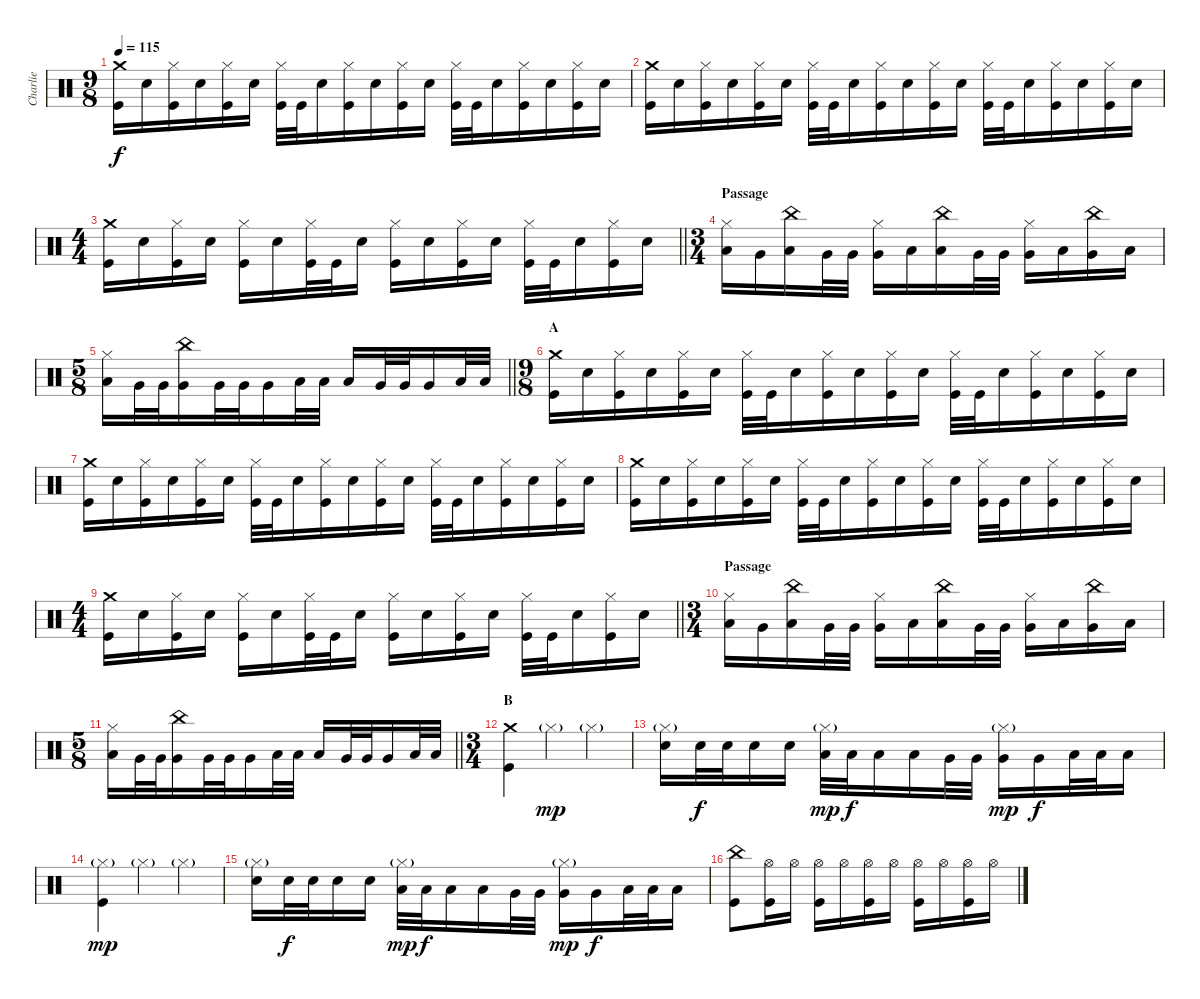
\track ("Charlie" "Charlie") {instrument percussion}
\staff {score}
\articulation defaults
\ts (9 8)
\tempo 115
\clef neutral
\ks c
("Kick (hit)" "Crash medium (hit)").16{dy f} "Snare (hit) 2".16 ("Kick (hit)" "Hi-Hat (closed)").16 "Snare (hit) 2".16 ("Kick (hit)" "Hi-Hat (closed)").16 "Snare (hit) 2".16 ("Kick (hit)" "Hi-Hat (closed)").32 "Kick (hit)".32 "Snare (hit) 2".16 ("Kick (hit)" "Hi-Hat (closed)").16 "Snare (hit) 2".16 ("Kick (hit)" "Hi-Hat (closed)").16 "Snare (hit) 2".16 ("Kick (hit)" "Hi-Hat (closed)").32 "Kick (hit)".32 "Snare (hit) 2".16 ("Kick (hit)" "Hi-Hat (closed)").16 "Snare (hit) 2".16 ("Kick (hit)" "Hi-Hat (closed)").16 "Snare (hit) 2".16 |
("Kick (hit)" "Crash medium (hit)").16 "Snare (hit) 2".16 ("Kick (hit)" "Hi-Hat (closed)").16 "Snare (hit) 2".16 ("Kick (hit)" "Hi-Hat (closed)").16 "Snare (hit) 2".16 ("Kick (hit)" "Hi-Hat (closed)").32 "Kick (hit)".32 "Snare (hit) 2".16 ("Kick (hit)" "Hi-Hat (closed)").16 "Snare (hit) 2".16 ("Kick (hit)" "Hi-Hat (closed)").16 "Snare (hit) 2".16 ("Kick (hit)" "Hi-Hat (closed)").32 "Kick (hit)".32 "Snare (hit) 2".16 ("Kick (hit)" "Hi-Hat (closed)").16 "Snare (hit) 2".16 ("Kick (hit)" "Hi-Hat (closed)").16 "Snare (hit) 2".16 |
\ts (4 4)
\barLineRight lightlight
("Kick (hit)" "Crash medium (hit)").16 "Snare (hit) 2".16 ("Kick (hit)" "Hi-Hat (closed)").16 "Snare (hit) 2".16 ("Kick (hit)" "Hi-Hat (closed)").16 "Snare (hit) 2".16 ("Kick (hit)" "Hi-Hat (closed)").32 "Kick (hit)".32 "Snare (hit) 2".16 ("Kick (hit)" "Hi-Hat (closed)").16 "Snare (hit) 2".16 ("Kick (hit)" "Hi-Hat (closed)").16 "Snare (hit) 2".16 ("Kick (hit)" "Hi-Hat (closed)").32 "Kick (hit)".32 "Snare (hit) 2".16 ("Kick (hit)" "Hi-Hat (closed)").16 "Snare (hit) 2".16 |
\ts (3 4)
\section ("" "Passage")
("Low Floor Tom (hit)" "Hi-Hat (closed)").16 "Very Low Tom (hit)".16 ("Low Tom (hit)" "China (hit)").16 "Very Low Tom (hit)".32 "Very Low Tom (hit)".32 ("Very Low Tom (hit)" "Hi-Hat (closed)").16 "Low Floor Tom (hit)".16 ("Low Floor Tom (hit)" "China (hit)").16 "Very Low Tom (hit)".32 "Very Low Tom (hit)".32 ("Very Low Tom (hit)" "Hi-Hat (closed)").16 "Low Floor Tom (hit)".16 ("Very Low Tom (hit)" "China (hit)").16 "Low Floor Tom (hit)".16 |
\ts (5 8)
\barLineRight lightlight
("Low Floor Tom (hit)" "Hi-Hat (closed)").16 "Very Low Tom (hit)".32 "Very Low Tom (hit)".32 ("Very Low Tom (hit)" "China (hit)").16 "Very Low Tom (hit)".32 "Very Low Tom (hit)".32 "Very Low Tom (hit)".16 "Low Floor Tom (hit)".32 "Low Floor Tom (hit)".32 "Low Floor Tom (hit)".16 "Very Low Tom (hit)".32 "Very Low Tom (hit)".32 "Very Low Tom (hit)".16 "Low Floor Tom (hit)".32 "Low Floor Tom (hit)".32 |
\ts (9 8)
\section ("" "A")
("Kick (hit)" "Crash medium (hit)").16 "Snare (hit) 2".16 ("Kick (hit)" "Hi-Hat (closed)").16 "Snare (hit) 2".16 ("Kick (hit)" "Hi-Hat (closed)").16 "Snare (hit) 2".16 ("Kick (hit)" "Hi-Hat (closed)").32 "Kick (hit)".32 "Snare (hit) 2".16 ("Kick (hit)" "Hi-Hat (closed)").16 "Snare (hit) 2".16 ("Kick (hit)" "Hi-Hat (closed)").16 "Snare (hit) 2".16 ("Kick (hit)" "Hi-Hat (closed)").32 "Kick (hit)".32 "Snare (hit) 2".16 ("Kick (hit)" "Hi-Hat (closed)").16 "Snare (hit) 2".16 ("Kick (hit)" "Hi-Hat (closed)").16 "Snare (hit) 2".16 |
("Kick (hit)" "Crash medium (hit)").16 "Snare (hit) 2".16 ("Kick (hit)" "Hi-Hat (closed)").16 "Snare (hit) 2".16 ("Kick (hit)" "Hi-Hat (closed)").16 "Snare (hit) 2".16 ("Kick (hit)" "Hi-Hat (closed)").32 "Kick (hit)".32 "Snare (hit) 2".16 ("Kick (hit)" "Hi-Hat (closed)").16 "Snare (hit) 2".16 ("Kick (hit)" "Hi-Hat (closed)").16 "Snare (hit) 2".16 ("Kick (hit)" "Hi-Hat (closed)").32 "Kick (hit)".32 "Snare (hit) 2".16 ("Kick (hit)" "Hi-Hat (closed)").16 "Snare (hit) 2".16 ("Kick (hit)" "Hi-Hat (closed)").16 "Snare (hit) 2".16 |
("Kick (hit)" "Crash medium (hit)").16 "Snare (hit) 2".16 ("Kick (hit)" "Hi-Hat (closed)").16 "Snare (hit) 2".16 ("Kick (hit)" "Hi-Hat (closed)").16 "Snare (hit) 2".16 ("Kick (hit)" "Hi-Hat (closed)").32 "Kick (hit)".32 "Snare (hit) 2".16 ("Kick (hit)" "Hi-Hat (closed)").16 "Snare (hit) 2".16 ("Kick (hit)" "Hi-Hat (closed)").16 "Snare (hit) 2".16 ("Kick (hit)" "Hi-Hat (closed)").32 "Kick (hit)".32 "Snare (hit) 2".16 ("Kick (hit)" "Hi-Hat (closed)").16 "Snare (hit) 2".16 ("Kick (hit)" "Hi-Hat (closed)").16 "Snare (hit) 2".16 |
\ts (4 4)
\barLineRight lightlight
("Kick (hit)" "Crash medium (hit)").16 "Snare (hit) 2".16 ("Kick (hit)" "Hi-Hat (closed)").16 "Snare (hit) 2".16 ("Kick (hit)" "Hi-Hat (closed)").16 "Snare (hit) 2".16 ("Kick (hit)" "Hi-Hat (closed)").32 "Kick (hit)".32 "Snare (hit) 2".16 ("Kick (hit)" "Hi-Hat (closed)").16 "Snare (hit) 2".16 ("Kick (hit)" "Hi-Hat (closed)").16 "Snare (hit) 2".16 ("Kick (hit)" "Hi-Hat (closed)").32 "Kick (hit)".32 "Snare (hit) 2".16 ("Kick (hit)" "Hi-Hat (closed)").16 "Snare (hit) 2".16 |
\ts (3 4)
\section ("" "Passage")
("Low Floor Tom (hit)" "Hi-Hat (closed)").16 "Very Low Tom (hit)".16 ("Low Tom (hit)" "China (hit)").16 "Very Low Tom (hit)".32 "Very Low Tom (hit)".32 ("Very Low Tom (hit)" "Hi-Hat (closed)").16 "Low Floor Tom (hit)".16 ("Low Floor Tom (hit)" "China (hit)").16 "Very Low Tom (hit)".32 "Very Low Tom (hit)".32 ("Very Low Tom (hit)" "Hi-Hat (closed)").16 "Low Floor Tom (hit)".16 ("Very Low Tom (hit)" "China (hit)").16 "Low Floor Tom (hit)".16 |
\ts (5 8)
\barLineRight lightlight
("Low Floor Tom (hit)" "Hi-Hat (closed)").16 "Very Low Tom (hit)".32 "Very Low Tom (hit)".32 ("Very Low Tom (hit)" "China (hit)").16 "Very Low Tom (hit)".32 "Very Low Tom (hit)".32 "Very Low Tom (hit)".16 "Low Floor Tom (hit)".32 "Low Floor Tom (hit)".32 "Low Floor Tom (hit)".16 "Very Low Tom (hit)".32 "Very Low Tom (hit)".32 "Very Low Tom (hit)".16 "Low Floor Tom (hit)".32 "Low Floor Tom (hit)".32 |
\ts (3 4)
\section ("" "B")
("Kick (hit)" "Crash medium (hit)").4 "Hi-Hat (closed)"{g}.4{dy mp} "Hi-Hat (closed)"{g}.4 |
("Snare (hit) 2" "Hi-Hat (closed)"{g}).16 "Snare (hit) 2".32{dy f} "Snare (hit) 2".32 "Snare (hit) 2".16 "Snare (hit) 2".16 ("Low Tom (hit)" "Hi-Hat (closed)"{g}).32{dy mp} "Low Tom (hit)".32{dy f} "Low Tom (hit)".16 "Low Tom (hit)".16 "Very Low Tom (hit)".32 "Very Low Tom (hit)".32 ("Very Low Tom (hit)" "Hi-Hat (closed)"{g}).16{dy mp} "Very Low Tom (hit)".16{dy f} "Low Floor Tom (hit)".32 "Low Floor Tom (hit)".32 "Low Floor Tom (hit)".16 |
("Kick (hit)" "Hi-Hat (closed)"{g}).4{dy mp} "Hi-Hat (closed)"{g}.4 "Hi-Hat (closed)"{g}.4 |
("Snare (hit) 2" "Hi-Hat (closed)"{g}).16 "Snare (hit) 2".32{dy f} "Snare (hit) 2".32 "Snare (hit) 2".16 "Snare (hit) 2".16 ("Low Tom (hit)" "Hi-Hat (closed)"{g}).32{dy mp} "Low Tom (hit)".32{dy f} "Low Tom (hit)".16 "Low Tom (hit)".16 "Very Low Tom (hit)".32 "Very Low Tom (hit)".32 ("Very Low Tom (hit)" "Hi-Hat (closed)"{g}).16{dy mp} "Very Low Tom (hit)".16{dy f} "Low Floor Tom (hit)".32 "Low Floor Tom (hit)".32 "Low Floor Tom (hit)".16 |
("Kick (hit)" "China (hit)").8 ("Kick (hit)" "Hi-Hat (open)").16 "Hi-Hat (open)".16 ("Kick (hit)" "Hi-Hat (open)").16 "Hi-Hat (open)".16 ("Kick (hit)" "Hi-Hat (open)").16 "Hi-Hat (open)".16 ("Kick (hit)" "Hi-Hat (open)").16 "Hi-Hat (open)".16 ("Kick (hit)" "Hi-Hat (open)").16 "Hi-Hat (open)".16
